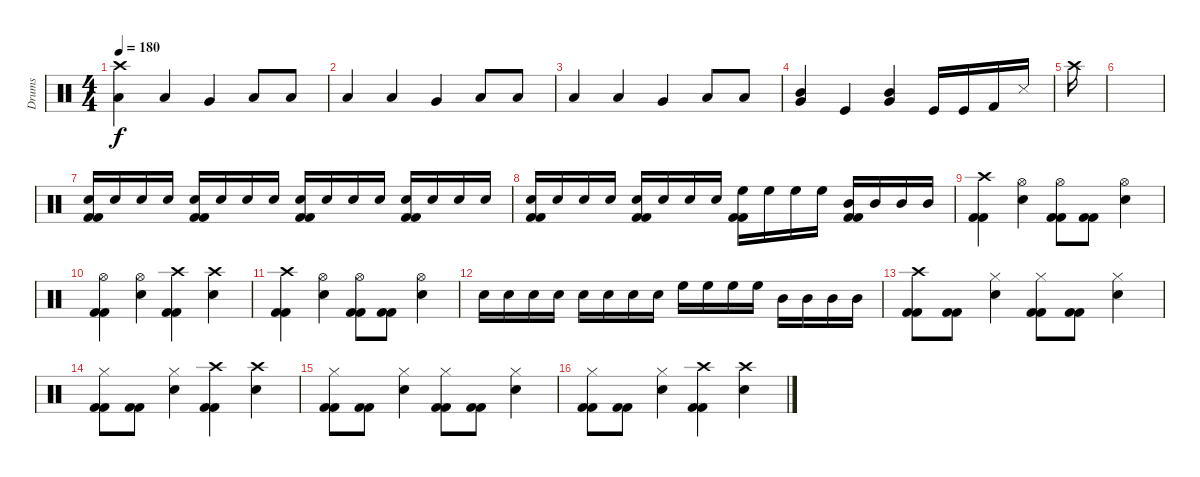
\track ("Drums" "Drums") {instrument percussion}
\staff {score}
\articulation defaults
\ts (4 4)
\tempo 180
\clef neutral
\ks c
("Crash high (hit)" "Low Floor Tom (hit)").4{dy f} "Low Floor Tom (hit)".4 "Very Low Tom (hit)".4 "Low Floor Tom (hit)".8 "Low Floor Tom (hit)".8 |
"Low Floor Tom (hit)".4 "Low Floor Tom (hit)".4 "Very Low Tom (hit)".4 "Low Floor Tom (hit)".8 "Low Floor Tom (hit)".8 |
"Low Floor Tom (hit)".4 "Low Floor Tom (hit)".4 "Very Low Tom (hit)".4 "Low Floor Tom (hit)".8 "Low Floor Tom (hit)".8 |
("Mid Tom (hit)" "Very Low Tom (hit)").4 "Kick (hit)".4 ("Mid Tom (hit)" "Very Low Tom (hit)").4 "Kick (hit)".16 "Kick (hit)".16 "Kick (hit) 2".16 "Snare (side stick) 3".16 |
"Crash high (hit)".16 |
|
("Snare (hit) 2" "Kick (hit) 2" "Kick (hit) 2").16 "Snare (hit) 2".16 "Snare (hit) 2".16 "Snare (hit) 2".16 ("Snare (hit) 2" "Kick (hit) 2" "Kick (hit) 2").16 "Snare (hit) 2".16 "Snare (hit) 2".16 "Snare (hit) 2".16 ("Snare (hit) 2" "Kick (hit) 2" "Kick (hit) 2").16 "Snare (hit) 2".16 "Snare (hit) 2".16 "Snare (hit) 2".16 ("Snare (hit) 2" "Kick (hit) 2" "Kick (hit) 2").16 "Snare (hit) 2".16 "Snare (hit) 2".16 "Snare (hit) 2".16 |
("Snare (hit) 2" "Kick (hit) 2" "Kick (hit) 2").16 "Snare (hit) 2".16 "Snare (hit) 2".16 "Snare (hit) 2".16 ("Snare (hit) 2" "Kick (hit) 2" "Kick (hit) 2").16 "Snare (hit) 2".16 "Snare (hit) 2".16 "Snare (hit) 2".16 ("High Floor Tom (hit)" "Kick (hit) 2" "Kick (hit) 2").16 "High Floor Tom (hit)".16 "High Floor Tom (hit)".16 "High Floor Tom (hit)".16 ("Mid Tom (hit)" "Kick (hit) 2" "Kick (hit) 2").16 "Mid Tom (hit)".16 "Mid Tom (hit)".16 "Mid Tom (hit)".16 |
("Crash high (hit)" "Kick (hit) 2" "Kick (hit) 2").4 ("Hi-Hat (open)" "Snare (hit) 2").4 ("Hi-Hat (open)" "Kick (hit) 2" "Kick (hit) 2").8 ("Kick (hit) 2" "Kick (hit) 2").8 ("Hi-Hat (open)" "Snare (hit) 2").4 |
("Hi-Hat (open)" "Kick (hit) 2" "Kick (hit) 2").4 ("Hi-Hat (open)" "Snare (hit) 2").4 ("Crash high (hit)" "Kick (hit) 2" "Kick (hit) 2").4 ("Crash high (hit)" "Snare (hit) 2").4 |
("Crash high (hit)" "Kick (hit) 2" "Kick (hit) 2").4 ("Hi-Hat (open)" "Snare (hit) 2").4 ("Hi-Hat (open)" "Kick (hit) 2" "Kick (hit) 2").8 ("Kick (hit) 2" "Kick (hit) 2").8 ("Hi-Hat (open)" "Snare (hit) 2").4 |
"Snare (hit) 2".16 "Snare (hit) 2".16 "Snare (hit) 2".16 "Snare (hit) 2".16 "Snare (hit) 2".16 "Snare (hit) 2".16 "Snare (hit) 2".16 "Snare (hit) 2".16 "High Floor Tom (hit)".16 "High Floor Tom (hit)".16 "High Floor Tom (hit)".16 "High Floor Tom (hit)".16 "Mid Tom (hit)".16 "Mid Tom (hit)".16 "Mid Tom (hit)".16 "Mid Tom (hit)".16 |
("Crash high (hit)" "Kick (hit) 2" "Kick (hit) 2").8 ("Kick (hit) 2" "Kick (hit) 2").8 ("Hi-Hat (closed)" "Snare (hit) 2").4 ("Hi-Hat (closed)" "Kick (hit) 2" "Kick (hit) 2").8 ("Kick (hit) 2" "Kick (hit) 2").8 ("Hi-Hat (closed)" "Snare (hit) 2").4 |
("Hi-Hat (closed)" "Kick (hit) 2" "Kick (hit) 2").8 ("Kick (hit) 2" "Kick (hit) 2").8 ("Hi-Hat (closed)" "Snare (hit) 2").4 ("Crash high (hit)" "Kick (hit) 2" "Kick (hit) 2").4 ("Crash high (hit)" "Snare (hit) 2").4 |
("Hi-Hat (closed)" "Kick (hit) 2" "Kick (hit) 2").8 ("Kick (hit) 2" "Kick (hit) 2").8 ("Hi-Hat (closed)" "Snare (hit) 2").4 ("Hi-Hat (closed)" "Kick (hit) 2" "Kick (hit) 2").8 ("Kick (hit) 2" "Kick (hit) 2").8 ("Hi-Hat (closed)" "Snare (hit) 2").4 |
("Hi-Hat (closed)" "Kick (hit) 2" "Kick (hit) 2").8 ("Kick (hit) 2" "Kick (hit) 2").8 ("Hi-Hat (closed)" "Snare (hit) 2").4 ("Crash high (hit)" "Kick (hit) 2" "Kick (hit) 2").4 ("Crash high (hit)" "Snare (hit) 2").4
